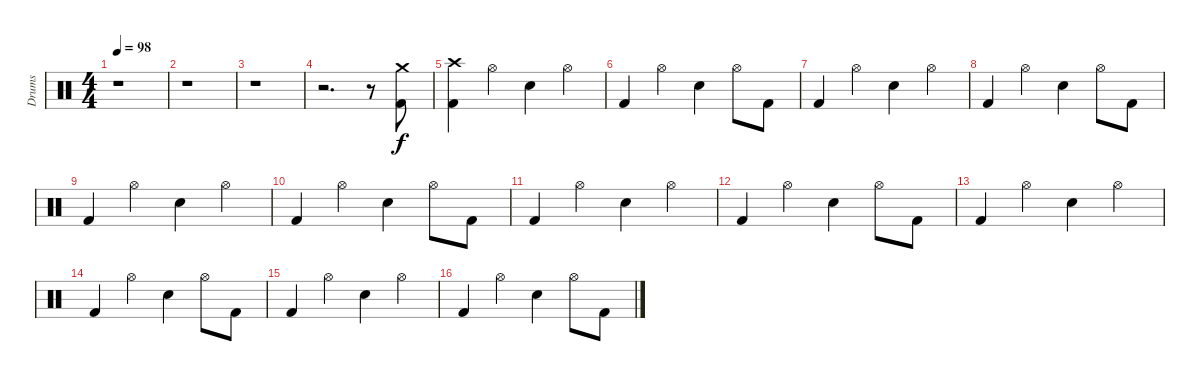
\track ("Drums" "Drums") {instrument percussion}
\staff {score}
\articulation defaults
\ts (4 4)
\tempo 98
\clef neutral
\ks c
r.1{dy f} |
r.1 |
r.1 |
r.2{d} r.8 ("Kick (hit) 2" "Crash medium (hit)").8 |
("Kick (hit) 2" "Crash high (hit)").4 "Hi-Hat (open)".4 "Snare (hit) 2".4 "Hi-Hat (open)".4 |
"Kick (hit) 2".4 "Hi-Hat (open)".4 "Snare (hit) 2".4 "Hi-Hat (open)".8 "Kick (hit) 2".8 |
"Kick (hit) 2".4 "Hi-Hat (open)".4 "Snare (hit) 2".4 "Hi-Hat (open)".4 |
"Kick (hit) 2".4 "Hi-Hat (open)".4 "Snare (hit) 2".4 "Hi-Hat (open)".8 "Kick (hit) 2".8 |
"Kick (hit) 2".4 "Hi-Hat (open)".4 "Snare (hit) 2".4 "Hi-Hat (open)".4 |
"Kick (hit) 2".4 "Hi-Hat (open)".4 "Snare (hit) 2".4 "Hi-Hat (open)".8 "Kick (hit) 2".8 |
"Kick (hit) 2".4 "Hi-Hat (open)".4 "Snare (hit) 2".4 "Hi-Hat (open)".4 |
"Kick (hit) 2".4 "Hi-Hat (open)".4 "Snare (hit) 2".4 "Hi-Hat (open)".8 "Kick (hit) 2".8 |
"Kick (hit) 2".4 "Hi-Hat (open)".4 "Snare (hit) 2".4 "Hi-Hat (open)".4 |
"Kick (hit) 2".4 "Hi-Hat (open)".4 "Snare (hit) 2".4 "Hi-Hat (open)".8 "Kick (hit) 2".8 |
"Kick (hit) 2".4 "Hi-Hat (open)".4 "Snare (hit) 2".4 "Hi-Hat (open)".4 |
"Kick (hit) 2".4 "Hi-Hat (open)".4 "Snare (hit) 2".4 "Hi-Hat (open)".8 "Kick (hit) 2".8
